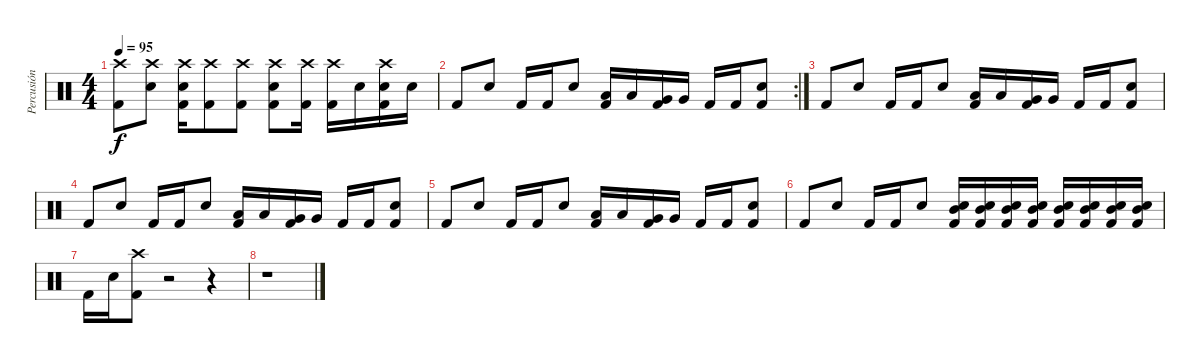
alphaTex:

\track ("Percusión" "Percusión") {instrument percussion}
\staff {score}
\articulation defaults
\ts (4 4)
\tempo 95
\clef neutral
\ks c
("Crash high (hit)" "Kick (hit) 2").8{dy f} ("Crash high (hit)" "Electric Snare (hit)").8 ("Crash high (hit)" "Electric Snare (hit)" "Kick (hit) 2").16 ("Crash high (hit)" "Kick (hit) 2").8 ("Crash high (hit)" "Kick (hit) 2").8 ("Crash high (hit)" "Electric Snare (hit)" "Kick (hit) 2").8 ("Crash high (hit)" "Kick (hit) 2").16 ("Crash high (hit)" "Kick (hit) 2").16 "Electric Snare (hit)".16 ("Crash high (hit)" "Electric Snare (hit)" "Kick (hit) 2").16 "Electric Snare (hit)".16 |
\rc 2 "Kick (hit) 2".8 "Electric Snare (hit)".8 "Kick (hit) 2".16 "Kick (hit) 2".16 "Electric Snare (hit)".8
("Low Tom (hit)" "Kick (hit) 2").16 "Low Tom (hit)".16 ("Very Low Tom (hit)" "Kick (hit) 2").16 "Very Low Tom (hit)".16 "Kick (hit) 2".16 "Kick (hit) 2".16 ("Electric Snare (hit)" "Kick (hit) 2").8 |
"Kick (hit) 2".8 "Electric Snare (hit)".8 "Kick (hit) 2".16 "Kick (hit) 2".16 "Electric Snare (hit)".8 ("Low Tom (hit)" "Kick (hit) 2").16 "Low Tom (hit)".16 ("Very Low Tom (hit)" "Kick (hit) 2").16 "Very Low Tom (hit)".16 "Kick (hit) 2".16 "Kick (hit) 2".16 ("Electric Snare (hit)" "Kick (hit) 2").8 |
"Kick (hit) 2".8 "Electric Snare (hit)".8 "Kick (hit) 2".16 "Kick (hit) 2".16 "Electric Snare (hit)".8 ("Low Tom (hit)" "Kick (hit) 2").16 "Low Tom (hit)".16 ("Very Low Tom (hit)" "Kick (hit) 2").16 "Very Low Tom (hit)".16 "Kick (hit) 2".16 "Kick (hit) 2".16 ("Electric Snare (hit)" "Kick (hit) 2").8 |
"Kick (hit) 2".8 "Electric Snare (hit)".8 "Kick (hit) 2".16 "Kick (hit) 2".16 "Electric Snare (hit)".8 ("Low Tom (hit)" "Kick (hit) 2").16 "Low Tom (hit)".16 ("Very Low Tom (hit)" "Kick (hit) 2").16 "Very Low Tom (hit)".16 "Kick (hit) 2".16 "Kick (hit) 2".16 ("Electric Snare (hit)" "Kick (hit) 2").8 |
"Kick (hit) 2".8 "Electric Snare (hit)".8 "Kick (hit) 2".16 "Kick (hit) 2".16 "Electric Snare (hit)".8 ("Mid Tom (hit)" "Electric Snare (hit)" "Kick (hit) 2").16 ("Mid Tom (hit)" "Electric Snare (hit)" "Kick (hit) 2").16 ("Mid Tom (hit)" "Electric Snare (hit)" "Kick (hit) 2").16 ("Mid Tom (hit)" "Electric Snare (hit)" "Kick (hit) 2").16 ("Mid Tom (hit)" "Electric Snare (hit)" "Kick (hit) 2").16 ("Mid Tom (hit)" "Electric Snare (hit)" "Kick (hit) 2").16 ("Mid Tom (hit)" "Electric Snare (hit)" "Kick (hit) 2").16 ("Mid Tom (hit)" "Electric Snare (hit)" "Kick (hit) 2").16 |
"Kick (hit) 2".16 "Electric Snare (hit)".16 ("Crash high (hit)" "Kick (hit) 2").8 r.2 r.4 |
r.1
